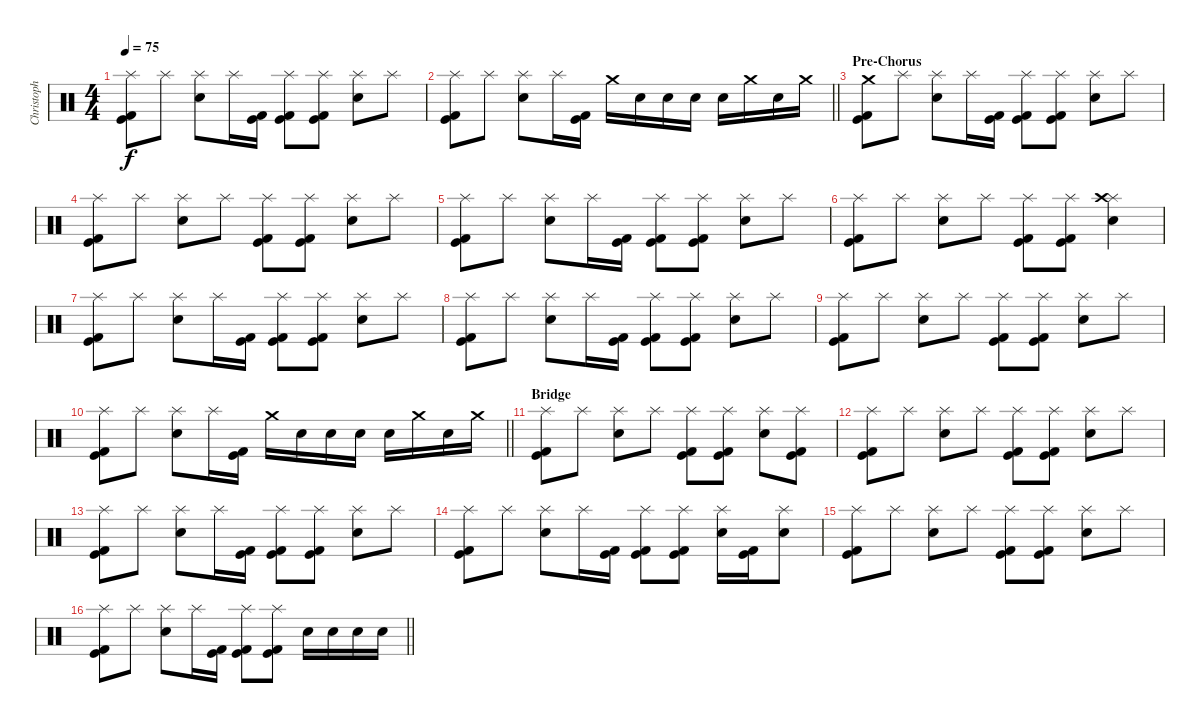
\track ("Christoph" "Christoph") {instrument percussion}
\staff {score}
\articulation defaults
\ts (4 4)
\tempo 75
\clef neutral
\ks c
("Splash (hit)" "Kick (hit)" "Kick (hit) 2").8{dy f} "Splash (hit)".8 ("Splash (hit)" "Snare (hit) 2").8 "Splash (hit)".16 ("Kick (hit)" "Kick (hit) 2").16 ("Kick (hit) 2" "Kick (hit)" "Splash (hit)").8 ("Kick (hit) 2" "Kick (hit)" "Splash (hit)").8 ("Snare (hit) 2" "Splash (hit)").8 "Splash (hit)".8 |
\barLineRight lightlight
("Splash (hit)" "Kick (hit)" "Kick (hit) 2").8 "Splash (hit)".8 ("Splash (hit)" "Snare (hit) 2").8 "Splash (hit)".16 ("Kick (hit)" "Kick (hit) 2").16 "Crash medium (hit)".16 "Snare (hit) 2".16 "Snare (hit) 2".16 "Snare (hit) 2".16 "Snare (hit) 2".16 "Crash medium (hit)".16 "Snare (hit) 2".16 "Crash medium (hit)".16 |
\section ("" "Pre-Chorus")
("Crash medium (hit)" "Kick (hit)" "Kick (hit) 2").8 "Splash (hit)".8 ("Splash (hit)" "Snare (hit) 2").8 "Splash (hit)".16 ("Kick (hit)" "Kick (hit) 2").16 ("Kick (hit) 2" "Kick (hit)" "Splash (hit)").8 ("Kick (hit) 2" "Kick (hit)" "Splash (hit)").8 ("Snare (hit) 2" "Splash (hit)").8 "Splash (hit)".8 |
("Splash (hit)" "Kick (hit)" "Kick (hit) 2").8 "Splash (hit)".8 ("Splash (hit)" "Snare (hit) 2").8 "Splash (hit)".8 ("Splash (hit)" "Kick (hit)" "Kick (hit) 2").8 ("Splash (hit)" "Kick (hit)" "Kick (hit) 2").8 ("Splash (hit)" "Snare (hit) 2").8 "Splash (hit)".8 |
("Splash (hit)" "Kick (hit)" "Kick (hit) 2").8 "Splash (hit)".8 ("Splash (hit)" "Snare (hit) 2").8 "Splash (hit)".16 ("Kick (hit)" "Kick (hit) 2").16 ("Kick (hit) 2" "Kick (hit)" "Splash (hit)").8 ("Kick (hit) 2" "Kick (hit)" "Splash (hit)").8 ("Snare (hit) 2" "Splash (hit)").8 "Splash (hit)".8 |
("Splash (hit)" "Kick (hit)" "Kick (hit) 2").8 "Splash (hit)".8 ("Splash (hit)" "Snare (hit) 2").8 "Splash (hit)".8 ("Splash (hit)" "Kick (hit)" "Kick (hit) 2").8 ("Splash (hit)" "Kick (hit)" "Kick (hit) 2").8 ("Splash (hit)" "Snare (hit) 2" "Crash high (hit)").4 |
("Splash (hit)" "Kick (hit)" "Kick (hit) 2").8 "Splash (hit)".8 ("Splash (hit)" "Snare (hit) 2").8 "Splash (hit)".16 ("Kick (hit)" "Kick (hit) 2").16 ("Kick (hit) 2" "Kick (hit)" "Splash (hit)").8 ("Kick (hit) 2" "Kick (hit)" "Splash (hit)").8 ("Snare (hit) 2" "Splash (hit)").8 "Splash (hit)".8 |
("Splash (hit)" "Kick (hit)" "Kick (hit) 2").8 "Splash (hit)".8 ("Splash (hit)" "Snare (hit) 2").8 "Splash (hit)".16 ("Kick (hit)" "Kick (hit) 2").16 ("Kick (hit) 2" "Kick (hit)" "Splash (hit)").8 ("Kick (hit) 2" "Kick (hit)" "Splash (hit)").8 ("Snare (hit) 2" "Splash (hit)").8 "Splash (hit)".8 |
("Splash (hit)" "Kick (hit)" "Kick (hit) 2").8 "Splash (hit)".8 ("Splash (hit)" "Snare (hit) 2").8 "Splash (hit)".8 ("Splash (hit)" "Kick (hit)" "Kick (hit) 2").8 ("Splash (hit)" "Kick (hit)" "Kick (hit) 2").8 ("Splash (hit)" "Snare (hit) 2").8 "Splash (hit)".8 |
\barLineRight lightlight
("Splash (hit)" "Kick (hit)" "Kick (hit) 2").8 "Splash (hit)".8 ("Splash (hit)" "Snare (hit) 2").8 "Splash (hit)".16 ("Kick (hit)" "Kick (hit) 2").16 "Crash medium (hit)".16 "Snare (hit) 2".16 "Snare (hit) 2".16 "Snare (hit) 2".16 "Snare (hit) 2".16 "Crash medium (hit)".16 "Snare (hit) 2".16 "Crash medium (hit)".16 |
\section ("" "Bridge")
("Splash (hit)" "Kick (hit)" "Kick (hit) 2").8 "Splash (hit)".8 ("Splash (hit)" "Snare (hit) 2").8 "Splash (hit)".8 ("Splash (hit)" "Kick (hit)" "Kick (hit) 2").8 ("Splash (hit)" "Kick (hit)" "Kick (hit) 2").8 ("Splash (hit)" "Snare (hit) 2").8 ("Splash (hit)" "Kick (hit)" "Kick (hit) 2").8 |
("Splash (hit)" "Kick (hit)" "Kick (hit) 2").8 "Splash (hit)".8 ("Splash (hit)" "Snare (hit) 2").8 "Splash (hit)".8 ("Splash (hit)" "Kick (hit)" "Kick (hit) 2").8 ("Splash (hit)" "Kick (hit)" "Kick (hit) 2").8 ("Splash (hit)" "Snare (hit) 2").8 "Splash (hit)".8 |
("Splash (hit)" "Kick (hit)" "Kick (hit) 2").8 "Splash (hit)".8 ("Splash (hit)" "Snare (hit) 2").8 "Splash (hit)".16 ("Kick (hit)" "Kick (hit) 2").16 ("Kick (hit) 2" "Kick (hit)" "Splash (hit)").8 ("Kick (hit) 2" "Kick (hit)" "Splash (hit)").8 ("Snare (hit) 2" "Splash (hit)").8 "Splash (hit)".8 |
("Splash (hit)" "Kick (hit)" "Kick (hit) 2").8 "Splash (hit)".8 ("Splash (hit)" "Snare (hit) 2").8 "Splash (hit)".16 ("Kick (hit)" "Kick (hit) 2").16 ("Kick (hit) 2" "Kick (hit)" "Splash (hit)").8 ("Kick (hit) 2" "Kick (hit)" "Splash (hit)").8 ("Snare (hit) 2" "Splash (hit)").16 ("Kick (hit)" "Kick (hit) 2").16 ("Snare (hit) 2" "Splash (hit)").8 |
("Splash (hit)" "Kick (hit)" "Kick (hit) 2").8 "Splash (hit)".8 ("Splash (hit)" "Snare (hit) 2").8 "Splash (hit)".8 ("Splash (hit)" "Kick (hit)" "Kick (hit) 2").8 ("Splash (hit)" "Kick (hit)" "Kick (hit) 2").8 ("Splash (hit)" "Snare (hit) 2").8 "Splash (hit)".8 |
\barLineRight lightlight
("Splash (hit)" "Kick (hit)" "Kick (hit) 2").8 "Splash (hit)".8 ("Splash (hit)" "Snare (hit) 2").8 "Splash (hit)".16 ("Kick (hit)" "Kick (hit) 2").16 ("Kick (hit) 2" "Kick (hit)" "Splash (hit)").8 ("Kick (hit) 2" "Kick (hit)" "Splash (hit)").8 "Snare (hit) 2".16 "Snare (hit) 2".16 "Snare (hit) 2".16 "Snare (hit) 2".16
